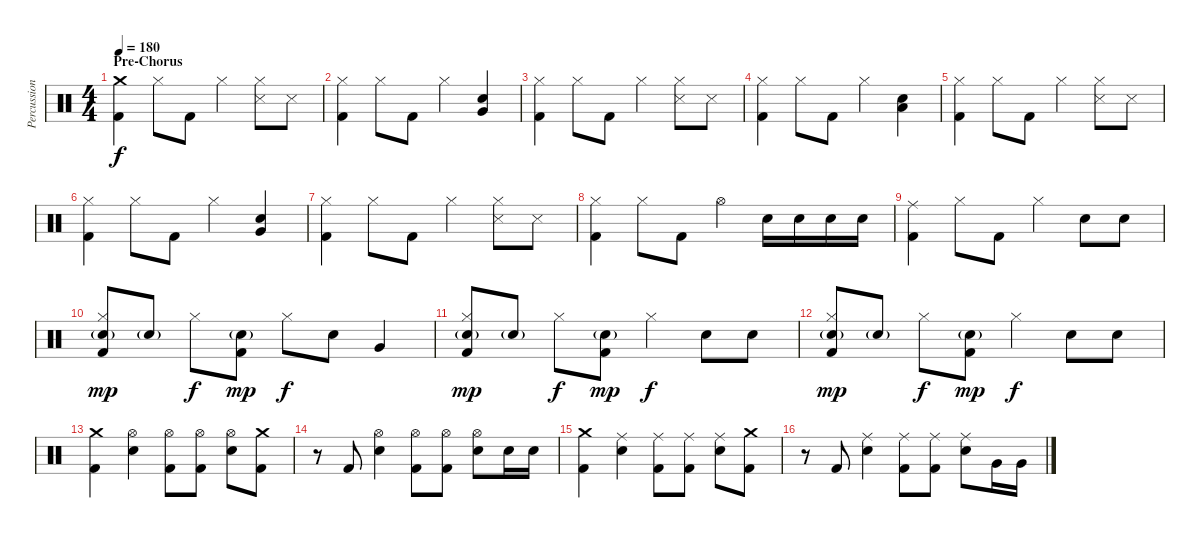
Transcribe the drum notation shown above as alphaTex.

\track ("Percussion" "Percussion") {instrument percussion}
\staff {score}
\articulation defaults
\ts (4 4)
\section ("" "Pre-Chorus")
\tempo 180
\clef neutral
\ks c
("Crash medium (hit)" "Kick (hit) 2").4{dy f} "Hi-Hat (closed)".8 "Kick (hit) 2".8 "Hi-Hat (closed)".4 ("Hi-Hat (closed)" "Snare (side stick) 3").8 "Snare (side stick) 3".8 |
("Hi-Hat (closed)" "Kick (hit) 2").4 "Hi-Hat (closed)".8 "Kick (hit) 2".8 "Hi-Hat (closed)".4 ("Snare (hit) 2" "Very Low Tom (hit)").4 |
("Hi-Hat (closed)" "Kick (hit) 2").4 "Hi-Hat (closed)".8 "Kick (hit) 2".8 "Hi-Hat (closed)".4 ("Hi-Hat (closed)" "Snare (side stick) 3").8 "Snare (side stick) 3".8 |
("Hi-Hat (closed)" "Kick (hit) 2").4 "Hi-Hat (closed)".8 "Kick (hit) 2".8 "Hi-Hat (closed)".4 ("Snare (hit) 2" "Low Tom (hit)").4 |
("Hi-Hat (closed)" "Kick (hit) 2").4 "Hi-Hat (closed)".8 "Kick (hit) 2".8 "Hi-Hat (closed)".4 ("Hi-Hat (closed)" "Snare (side stick) 3").8 "Snare (side stick) 3".8 |
("Hi-Hat (closed)" "Kick (hit) 2").4 "Hi-Hat (closed)".8 "Kick (hit) 2".8 "Hi-Hat (closed)".4 ("Snare (hit) 2" "Very Low Tom (hit)").4 |
("Hi-Hat (closed)" "Kick (hit) 2").4 "Hi-Hat (closed)".8 "Kick (hit) 2".8 "Hi-Hat (closed)".4 ("Hi-Hat (closed)" "Snare (side stick) 3").8 "Snare (side stick) 3".8 |
("Hi-Hat (closed)" "Kick (hit) 2").4 "Hi-Hat (closed)".8 "Kick (hit) 2".8 "Hi-Hat (open)".4 "Snare (hit) 2".16 "Snare (hit) 2".16 "Snare (hit) 2".16 "Snare (hit) 2".16 |
("Ride (middle)" "Kick (hit) 2").4 "Hi-Hat (closed)".8 "Kick (hit) 2".8 "Hi-Hat (closed)".4 "Snare (hit) 2".8 "Snare (hit) 2".8 |
("Hi-Hat (closed)" "Snare (hit) 2"{g} "Kick (hit) 2").8{dy mp} "Snare (hit) 2"{g}.8 "Hi-Hat (closed)".8{dy f} ("Snare (hit) 2"{g} "Kick (hit) 2").8{dy mp} "Hi-Hat (closed)".8{dy f} "Snare (hit) 2".8 "Very Low Tom (hit)".4 |
("Hi-Hat (closed)" "Snare (hit) 2"{g} "Kick (hit) 2").8{dy mp} "Snare (hit) 2"{g}.8 "Hi-Hat (closed)".8{dy f} ("Snare (hit) 2"{g} "Kick (hit) 2").8{dy mp} "Hi-Hat (closed)".4{dy f} "Snare (hit) 2".8 "Snare (hit) 2".8 |
("Hi-Hat (closed)" "Snare (hit) 2"{g} "Kick (hit) 2").8{dy mp} "Snare (hit) 2"{g}.8 "Hi-Hat (closed)".8{dy f} ("Snare (hit) 2"{g} "Kick (hit) 2").8{dy mp} "Hi-Hat (closed)".4{dy f} "Snare (hit) 2".8 "Snare (hit) 2".8 |
("Crash medium (hit)" "Kick (hit) 2").4 ("Hi-Hat (open)" "Snare (hit) 2").4 ("Hi-Hat (open)" "Kick (hit) 2").8 ("Hi-Hat (open)" "Kick (hit) 2").8 ("Hi-Hat (open)" "Snare (hit) 2").8 ("Crash medium (hit)" "Kick (hit) 2").8 |
r.8 "Kick (hit) 2".8 ("Hi-Hat (open)" "Snare (hit) 2").4 ("Hi-Hat (open)" "Kick (hit) 2").8 ("Hi-Hat (open)" "Kick (hit) 2").8 ("Hi-Hat (open)" "Snare (hit) 2").8 "Snare (hit) 2".16 "Snare (hit) 2".16 |
("Crash medium (hit)" "Kick (hit) 2").4 ("Ride (middle)" "Snare (hit) 2").4 ("Ride (middle)" "Kick (hit) 2").8 ("Ride (middle)" "Kick (hit) 2").8 ("Ride (middle)" "Snare (hit) 2").8 ("Crash medium (hit)" "Kick (hit) 2").8 |
r.8 "Kick (hit) 2".8 ("Ride (middle)" "Snare (hit) 2").4 ("Ride (middle)" "Kick (hit) 2").8 ("Ride (middle)" "Kick (hit) 2").8 ("Ride (middle)" "Snare (hit) 2").8 "Very Low Tom (hit)".16 "Very Low Tom (hit)".16
